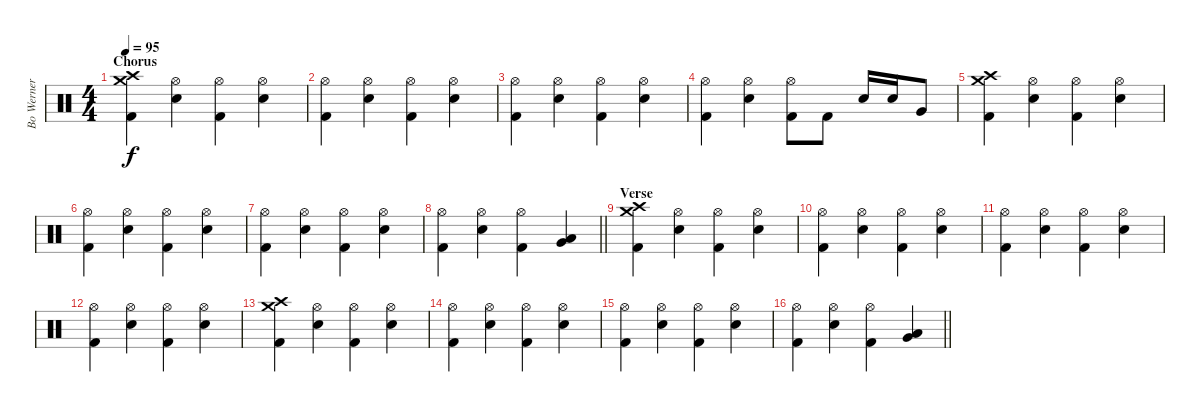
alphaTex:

\track ("Bo Werner" "Bo Werner") {instrument percussion}
\staff {score}
\articulation defaults
\ts (4 4)
\section ("" "Chorus")
\tempo 95
\clef neutral
\ks c
("Crash medium (hit)" "Crash high (hit)" "Kick (hit) 2").4{dy f} ("Hi-Hat (open)" "Snare (hit) 2").4 ("Hi-Hat (open)" "Kick (hit) 2").4 ("Hi-Hat (open)" "Snare (hit) 2").4 |
("Hi-Hat (open)" "Kick (hit) 2").4 ("Hi-Hat (open)" "Snare (hit) 2").4 ("Hi-Hat (open)" "Kick (hit) 2").4 ("Hi-Hat (open)" "Snare (hit) 2").4 |
("Hi-Hat (open)" "Kick (hit) 2").4 ("Hi-Hat (open)" "Snare (hit) 2").4 ("Hi-Hat (open)" "Kick (hit) 2").4 ("Hi-Hat (open)" "Snare (hit) 2").4 |
("Hi-Hat (open)" "Kick (hit) 2").4 ("Hi-Hat (open)" "Snare (hit) 2").4 ("Hi-Hat (open)" "Kick (hit) 2").8 "Kick (hit) 2".8 "Snare (hit) 2".16 "Snare (hit) 2".16 "Very Low Tom (hit)".8 |
("Crash high (hit)" "Crash medium (hit)" "Kick (hit) 2").4 ("Hi-Hat (open)" "Snare (hit) 2").4 ("Hi-Hat (open)" "Kick (hit) 2").4 ("Hi-Hat (open)" "Snare (hit) 2").4 |
("Hi-Hat (open)" "Kick (hit) 2").4 ("Hi-Hat (open)" "Snare (hit) 2").4 ("Hi-Hat (open)" "Kick (hit) 2").4 ("Hi-Hat (open)" "Snare (hit) 2").4 |
("Hi-Hat (open)" "Kick (hit) 2").4 ("Hi-Hat (open)" "Snare (hit) 2").4 ("Hi-Hat (open)" "Kick (hit) 2").4 ("Hi-Hat (open)" "Snare (hit) 2").4 |
\barLineRight lightlight
("Hi-Hat (open)" "Kick (hit) 2").4 ("Hi-Hat (open)" "Snare (hit) 2").4 ("Hi-Hat (open)" "Kick (hit) 2").4 ("Low Tom (hit)" "Very Low Tom (hit)").4 |
\section ("" "Verse")
("Crash medium (hit)" "Crash high (hit)" "Kick (hit) 2").4 ("Hi-Hat (open)" "Snare (hit) 2").4 ("Hi-Hat (open)" "Kick (hit) 2").4 ("Hi-Hat (open)" "Snare (hit) 2").4 |
("Hi-Hat (open)" "Kick (hit) 2").4 ("Hi-Hat (open)" "Snare (hit) 2").4 ("Hi-Hat (open)" "Kick (hit) 2").4 ("Hi-Hat (open)" "Snare (hit) 2").4 |
("Hi-Hat (open)" "Kick (hit) 2").4 ("Hi-Hat (open)" "Snare (hit) 2").4 ("Hi-Hat (open)" "Kick (hit) 2").4 ("Hi-Hat (open)" "Snare (hit) 2").4 |
("Hi-Hat (open)" "Kick (hit) 2").4 ("Hi-Hat (open)" "Snare (hit) 2").4 ("Hi-Hat (open)" "Kick (hit) 2").4 ("Hi-Hat (open)" "Snare (hit) 2").4 |
("Crash high (hit)" "Crash medium (hit)" "Kick (hit) 2").4 ("Hi-Hat (open)" "Snare (hit) 2").4 ("Hi-Hat (open)" "Kick (hit) 2").4 ("Hi-Hat (open)" "Snare (hit) 2").4 |
("Hi-Hat (open)" "Kick (hit) 2").4 ("Hi-Hat (open)" "Snare (hit) 2").4 ("Hi-Hat (open)" "Kick (hit) 2").4 ("Hi-Hat (open)" "Snare (hit) 2").4 |
("Hi-Hat (open)" "Kick (hit) 2").4 ("Hi-Hat (open)" "Snare (hit) 2").4 ("Hi-Hat (open)" "Kick (hit) 2").4 ("Hi-Hat (open)" "Snare (hit) 2").4 |
\barLineRight lightlight
("Hi-Hat (open)" "Kick (hit) 2").4 ("Hi-Hat (open)" "Snare (hit) 2").4 ("Hi-Hat (open)" "Kick (hit) 2").4 ("Low Tom (hit)" "Very Low Tom (hit)").4
